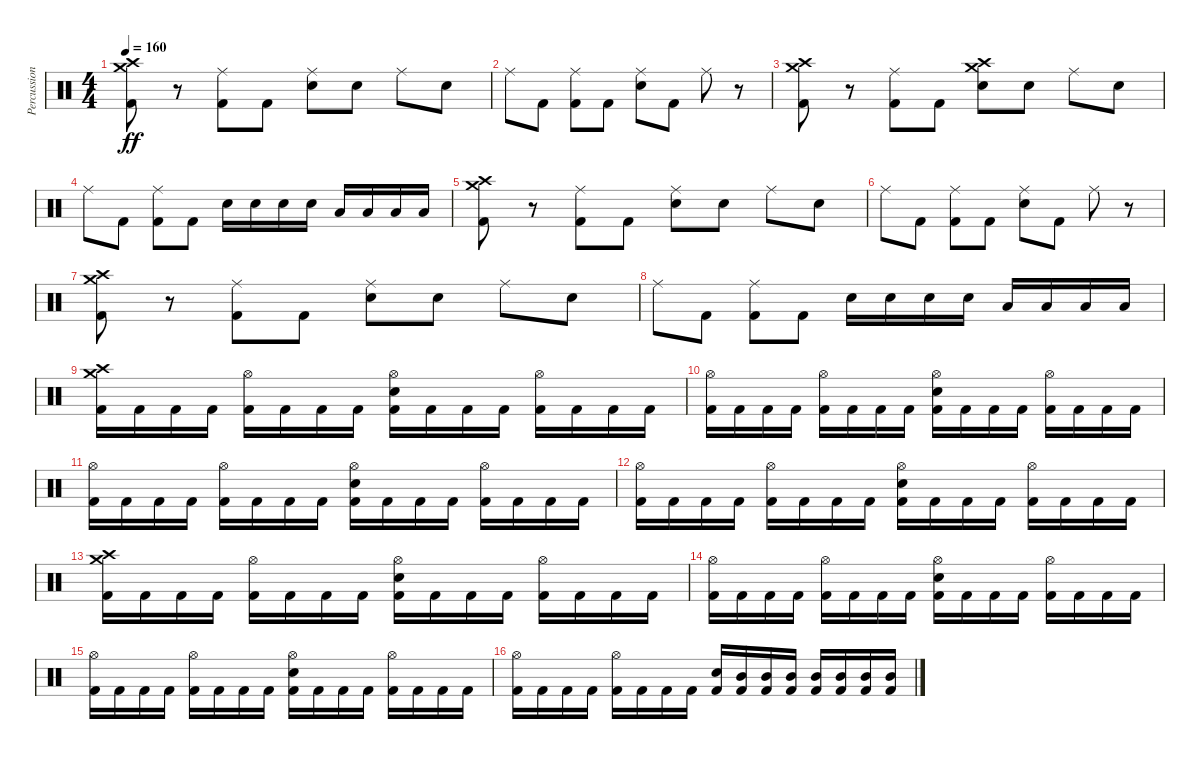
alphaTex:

\track ("Percussion" "Percussion") {instrument percussion}
\staff {score}
\articulation defaults
\ts (4 4)
\tempo 160
\clef neutral
\ks c
("Kick (hit) 2" "Crash medium (hit)" "Crash high (hit)").8{dy ff} r.8 ("Kick (hit) 2" "Ride (middle)").8 "Kick (hit) 2".8 ("Electric Snare (hit)" "Ride (middle)").8 "Electric Snare (hit)".8 "Ride (middle)".8 "Electric Snare (hit)".8 |
"Ride (middle)".8 "Kick (hit) 2".8 ("Kick (hit) 2" "Ride (middle)").8 "Kick (hit) 2".8 ("Electric Snare (hit)" "Ride (middle)").8 "Kick (hit) 2".8 "Ride (middle)".8 r.8 |
("Kick (hit) 2" "Crash medium (hit)" "Crash high (hit)").8 r.8 ("Kick (hit) 2" "Ride (middle)").8 "Kick (hit) 2".8 ("Crash medium (hit)" "Crash high (hit)" "Electric Snare (hit)").8 "Electric Snare (hit)".8 "Ride (middle)".8 "Electric Snare (hit)".8 |
"Ride (middle)".8 "Kick (hit) 2".8 ("Kick (hit) 2" "Ride (middle)").8 "Kick (hit) 2".8 "Electric Snare (hit)".16 "Electric Snare (hit)".16 "Electric Snare (hit)".16 "Electric Snare (hit)".16 "Low Tom (hit)".16 "Low Tom (hit)".16 "Low Tom (hit)".16 "Low Tom (hit)".16 |
("Kick (hit) 2" "Crash medium (hit)" "Crash high (hit)").8 r.8 ("Kick (hit) 2" "Ride (middle)").8 "Kick (hit) 2".8 ("Electric Snare (hit)" "Ride (middle)").8 "Electric Snare (hit)".8 "Ride (middle)".8 "Electric Snare (hit)".8 |
"Ride (middle)".8 "Kick (hit) 2".8 ("Kick (hit) 2" "Ride (middle)").8 "Kick (hit) 2".8 ("Electric Snare (hit)" "Ride (middle)").8 "Kick (hit) 2".8 "Ride (middle)".8 r.8 |
("Kick (hit) 2" "Crash medium (hit)" "Crash high (hit)").8 r.8 ("Kick (hit) 2" "Ride (middle)").8 "Kick (hit) 2".8 ("Electric Snare (hit)" "Ride (middle)").8 "Electric Snare (hit)".8 "Ride (middle)".8 "Electric Snare (hit)".8 |
"Ride (middle)".8 "Kick (hit) 2".8 ("Kick (hit) 2" "Ride (middle)").8 "Kick (hit) 2".8 "Electric Snare (hit)".16 "Electric Snare (hit)".16 "Electric Snare (hit)".16 "Electric Snare (hit)".16 "Low Tom (hit)".16 "Low Tom (hit)".16 "Low Tom (hit)".16 "Low Tom (hit)".16 |
("Kick (hit) 2" "Crash medium (hit)" "Crash high (hit)").16 "Kick (hit) 2".16 "Kick (hit) 2".16 "Kick (hit) 2".16 ("Kick (hit) 2" "Hi-Hat (open)").16 "Kick (hit) 2".16 "Kick (hit) 2".16 "Kick (hit) 2".16 ("Kick (hit) 2" "Hi-Hat (open)" "Electric Snare (hit)").16 "Kick (hit) 2".16 "Kick (hit) 2".16 "Kick (hit) 2".16 ("Kick (hit) 2" "Hi-Hat (open)").16 "Kick (hit) 2".16 "Kick (hit) 2".16 "Kick (hit) 2".16 |
("Kick (hit) 2" "Hi-Hat (open)").16 "Kick (hit) 2".16 "Kick (hit) 2".16 "Kick (hit) 2".16 ("Kick (hit) 2" "Hi-Hat (open)").16 "Kick (hit) 2".16 "Kick (hit) 2".16 "Kick (hit) 2".16 ("Kick (hit) 2" "Hi-Hat (open)" "Electric Snare (hit)").16 "Kick (hit) 2".16 "Kick (hit) 2".16 "Kick (hit) 2".16 ("Kick (hit) 2" "Hi-Hat (open)").16 "Kick (hit) 2".16 "Kick (hit) 2".16 "Kick (hit) 2".16 |
("Kick (hit) 2" "Hi-Hat (open)").16 "Kick (hit) 2".16 "Kick (hit) 2".16 "Kick (hit) 2".16 ("Kick (hit) 2" "Hi-Hat (open)").16 "Kick (hit) 2".16 "Kick (hit) 2".16 "Kick (hit) 2".16 ("Kick (hit) 2" "Hi-Hat (open)" "Electric Snare (hit)").16 "Kick (hit) 2".16 "Kick (hit) 2".16 "Kick (hit) 2".16 ("Kick (hit) 2" "Hi-Hat (open)").16 "Kick (hit) 2".16 "Kick (hit) 2".16 "Kick (hit) 2".16 |
("Kick (hit) 2" "Hi-Hat (open)").16 "Kick (hit) 2".16 "Kick (hit) 2".16 "Kick (hit) 2".16 ("Kick (hit) 2" "Hi-Hat (open)").16 "Kick (hit) 2".16 "Kick (hit) 2".16 "Kick (hit) 2".16 ("Kick (hit) 2" "Hi-Hat (open)" "Electric Snare (hit)").16 "Kick (hit) 2".16 "Kick (hit) 2".16 "Kick (hit) 2".16 ("Kick (hit) 2" "Hi-Hat (open)").16 "Kick (hit) 2".16 "Kick (hit) 2".16 "Kick (hit) 2".16 |
("Kick (hit) 2" "Crash medium (hit)" "Crash high (hit)").16 "Kick (hit) 2".16 "Kick (hit) 2".16 "Kick (hit) 2".16 ("Kick (hit) 2" "Hi-Hat (open)").16 "Kick (hit) 2".16 "Kick (hit) 2".16 "Kick (hit) 2".16 ("Kick (hit) 2" "Hi-Hat (open)" "Electric Snare (hit)").16 "Kick (hit) 2".16 "Kick (hit) 2".16 "Kick (hit) 2".16 ("Kick (hit) 2" "Hi-Hat (open)").16 "Kick (hit) 2".16 "Kick (hit) 2".16 "Kick (hit) 2".16 |
("Kick (hit) 2" "Hi-Hat (open)").16 "Kick (hit) 2".16 "Kick (hit) 2".16 "Kick (hit) 2".16 ("Kick (hit) 2" "Hi-Hat (open)").16 "Kick (hit) 2".16 "Kick (hit) 2".16 "Kick (hit) 2".16 ("Kick (hit) 2" "Hi-Hat (open)" "Electric Snare (hit)").16 "Kick (hit) 2".16 "Kick (hit) 2".16 "Kick (hit) 2".16 ("Kick (hit) 2" "Hi-Hat (open)").16 "Kick (hit) 2".16 "Kick (hit) 2".16 "Kick (hit) 2".16 |
("Kick (hit) 2" "Hi-Hat (open)").16 "Kick (hit) 2".16 "Kick (hit) 2".16 "Kick (hit) 2".16 ("Kick (hit) 2" "Hi-Hat (open)").16 "Kick (hit) 2".16 "Kick (hit) 2".16 "Kick (hit) 2".16 ("Kick (hit) 2" "Hi-Hat (open)" "Electric Snare (hit)").16 "Kick (hit) 2".16 "Kick (hit) 2".16 "Kick (hit) 2".16 ("Kick (hit) 2" "Hi-Hat (open)").16 "Kick (hit) 2".16 "Kick (hit) 2".16 "Kick (hit) 2".16 |
("Kick (hit) 2" "Hi-Hat (open)").16 "Kick (hit) 2".16 "Kick (hit) 2".16 "Kick (hit) 2".16 ("Kick (hit) 2" "Hi-Hat (open)").16 "Kick (hit) 2".16 "Kick (hit) 2".16 "Kick (hit) 2".16 ("Kick (hit) 2" "Electric Snare (hit)").16 ("Kick (hit) 2" "Mid Tom (hit)").16 ("Kick (hit) 2" "Mid Tom (hit)").16 ("Kick (hit) 2" "Mid Tom (hit)").16 ("Kick (hit) 2" "Mid Tom (hit)").16 ("Kick (hit) 2" "Mid Tom (hit)").16 ("Kick (hit) 2" "Mid Tom (hit)").16 ("Kick (hit) 2" "Mid Tom (hit)").16
